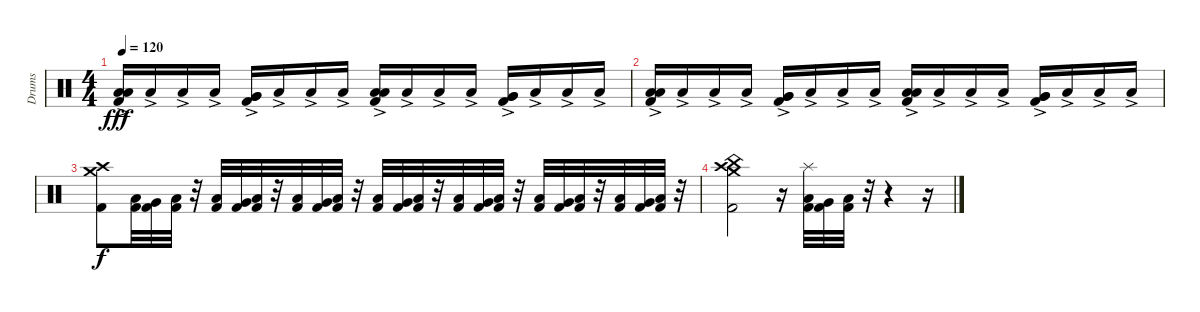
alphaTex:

\track ("Drums" "Drums") {instrument percussion}
\staff {score}
\articulation defaults
\ts (4 4)
\tempo 120
\clef neutral
\ks c
("Low Floor Tom (hit)"{ac} "Low Floor Tom (hit)"{ac} "Kick (hit) 2").16{dy fff} "Low Floor Tom (hit)"{ac}.16 "Low Floor Tom (hit)"{ac}.16 "Low Floor Tom (hit)"{ac}.16 ("Very Low Tom (hit)"{ac} "Very Low Tom (hit)"{ac} "Kick (hit) 2").16 "Low Floor Tom (hit)"{ac}.16 "Low Floor Tom (hit)"{ac}.16 "Low Floor Tom (hit)"{ac}.16 ("Low Floor Tom (hit)"{ac} "Low Floor Tom (hit)"{ac} "Kick (hit) 2").16 "Low Floor Tom (hit)"{ac}.16 "Low Floor Tom (hit)"{ac}.16 "Low Floor Tom (hit)"{ac}.16 ("Very Low Tom (hit)"{ac} "Very Low Tom (hit)"{ac} "Kick (hit) 2").16 "Low Floor Tom (hit)"{ac}.16 "Low Floor Tom (hit)"{ac}.16 "Low Floor Tom (hit)"{ac}.16 |
("Low Floor Tom (hit)"{ac} "Low Floor Tom (hit)"{ac} "Kick (hit) 2").16 "Low Floor Tom (hit)"{ac}.16 "Low Floor Tom (hit)"{ac}.16 "Low Floor Tom (hit)"{ac}.16 ("Very Low Tom (hit)"{ac} "Very Low Tom (hit)"{ac} "Kick (hit) 2").16 "Low Floor Tom (hit)"{ac}.16 "Low Floor Tom (hit)"{ac}.16 "Low Floor Tom (hit)"{ac}.16 ("Low Floor Tom (hit)"{ac} "Low Floor Tom (hit)"{ac} "Kick (hit) 2").16 "Low Floor Tom (hit)"{ac}.16 "Low Floor Tom (hit)"{ac}.16 "Low Floor Tom (hit)"{ac}.16 ("Very Low Tom (hit)"{ac} "Very Low Tom (hit)"{ac} "Kick (hit) 2").16 "Low Floor Tom (hit)"{ac}.16 "Low Floor Tom (hit)"{ac}.16 "Low Floor Tom (hit)"{ac}.16 |
("Crash high (hit)" "Crash medium (hit)" "Kick (hit) 2").8{dy f} ("Low Tom (hit)" "Kick (hit) 2").32 ("Very Low Tom (hit)" "Kick (hit) 2").32 ("Low Floor Tom (hit)" "Kick (hit) 2").32 r.32 ("Low Tom (hit)" "Kick (hit) 2").32 ("Very Low Tom (hit)" "Kick (hit) 2").32 ("Low Floor Tom (hit)" "Kick (hit) 2").32 r.32 ("Low Tom (hit)" "Kick (hit) 2").32 ("Very Low Tom (hit)" "Kick (hit) 2").32 ("Low Floor Tom (hit)" "Kick (hit) 2").32 r.32 ("Low Tom (hit)" "Kick (hit) 2").32 ("Very Low Tom (hit)" "Kick (hit) 2").32 ("Low Floor Tom (hit)" "Kick (hit) 2").32 r.32 ("Low Tom (hit)" "Kick (hit) 2").32 ("Very Low Tom (hit)" "Kick (hit) 2").32 ("Low Floor Tom (hit)" "Kick (hit) 2").32 r.32 ("Low Tom (hit)" "Kick (hit) 2").32 ("Very Low Tom (hit)" "Kick (hit) 2").32 ("Low Floor Tom (hit)" "Kick (hit) 2").32 r.32 ("Low Tom (hit)" "Kick (hit) 2").32 ("Very Low Tom (hit)" "Kick (hit) 2").32 ("Low Floor Tom (hit)" "Kick (hit) 2").32 r.32 |
("Crash high (hit)" "China (hit)" "Crash medium (hit)" "Kick (hit) 2").2 r.16 ("Splash (hit)" "Low Tom (hit)" "Kick (hit) 2").32 ("Very Low Tom (hit)" "Kick (hit) 2").32 ("Low Floor Tom (hit)" "Kick (hit) 2").32 r.32 r.4 r.16
